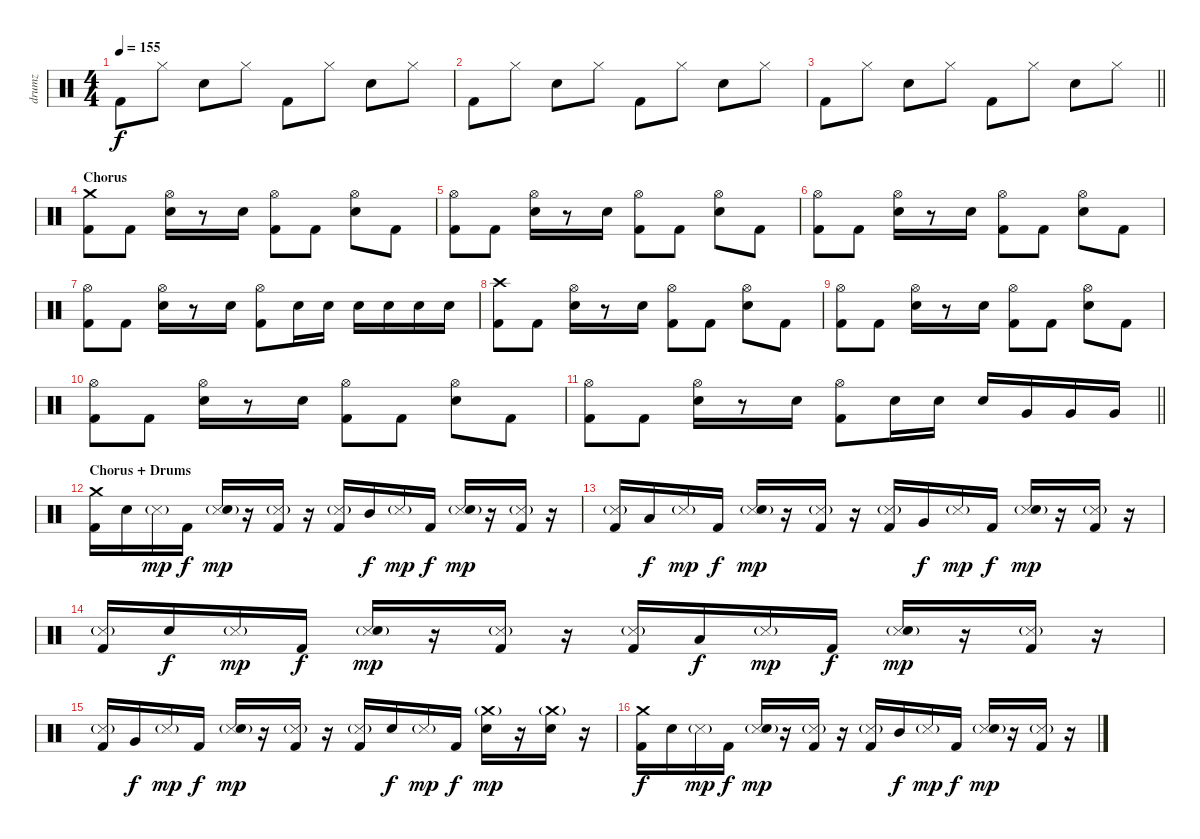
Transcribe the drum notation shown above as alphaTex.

\track ("drumz" "drumz") {instrument percussion}
\staff {score}
\articulation defaults
\ts (4 4)
\tempo 155
\clef neutral
\ks c "Kick (hit) 2".8{dy f} "Hi-Hat (closed)".8 "Electric Snare (hit)".8 "Hi-Hat (closed)".8 "Kick (hit) 2".8 "Hi-Hat (closed)".8 "Electric Snare (hit)".8 "Hi-Hat (closed)".8
|
"Kick (hit) 2".8 "Hi-Hat (closed)".8 "Electric Snare (hit)".8 "Hi-Hat (closed)".8 "Kick (hit) 2".8 "Hi-Hat (closed)".8 "Electric Snare (hit)".8 "Hi-Hat (closed)".8 |
\barLineRight lightlight "Kick (hit) 2".8 "Hi-Hat (closed)".8 "Electric Snare (hit)".8 "Hi-Hat (closed)".8 "Kick (hit) 2".8 "Hi-Hat (closed)".8 "Electric Snare (hit)".8 "Hi-Hat (closed)".8
|
\section ("" "Chorus")
("Crash medium (hit)" "Kick (hit) 2").8 "Kick (hit) 2".8 ("Hi-Hat (open)" "Electric Snare (hit)").16 r.8 "Electric Snare (hit)".16 ("Hi-Hat (open)" "Kick (hit) 2").8 "Kick (hit) 2".8 ("Hi-Hat (open)" "Electric Snare (hit)").8 "Kick (hit) 2".8 |
("Hi-Hat (open)" "Kick (hit) 2").8 "Kick (hit) 2".8 ("Hi-Hat (open)" "Electric Snare (hit)").16 r.8 "Electric Snare (hit)".16 ("Hi-Hat (open)" "Kick (hit) 2").8 "Kick (hit) 2".8 ("Hi-Hat (open)" "Electric Snare (hit)").8 "Kick (hit) 2".8 |
("Hi-Hat (open)" "Kick (hit) 2").8 "Kick (hit) 2".8 ("Hi-Hat (open)" "Electric Snare (hit)").16 r.8 "Electric Snare (hit)".16 ("Hi-Hat (open)" "Kick (hit) 2").8 "Kick (hit) 2".8 ("Hi-Hat (open)" "Electric Snare (hit)").8 "Kick (hit) 2".8 |
("Hi-Hat (open)" "Kick (hit) 2").8 "Kick (hit) 2".8 ("Hi-Hat (open)" "Electric Snare (hit)").16 r.8 "Electric Snare (hit)".16 ("Hi-Hat (open)" "Kick (hit) 2").8 "Electric Snare (hit)".16 "Electric Snare (hit)".16 "Electric Snare (hit)".16 "Electric Snare (hit)".16 "Electric Snare (hit)".16 "Electric Snare (hit)".16 |
("Crash high (hit)" "Kick (hit) 2").8 "Kick (hit) 2".8 ("Hi-Hat (open)" "Electric Snare (hit)").16 r.8 "Electric Snare (hit)".16 ("Hi-Hat (open)" "Kick (hit) 2").8 "Kick (hit) 2".8 ("Hi-Hat (open)" "Electric Snare (hit)").8 "Kick (hit) 2".8 |
("Hi-Hat (open)" "Kick (hit) 2").8 "Kick (hit) 2".8 ("Hi-Hat (open)" "Electric Snare (hit)").16 r.8 "Electric Snare (hit)".16 ("Hi-Hat (open)" "Kick (hit) 2").8 "Kick (hit) 2".8 ("Hi-Hat (open)" "Electric Snare (hit)").8 "Kick (hit) 2".8 |
("Hi-Hat (open)" "Kick (hit) 2").8 "Kick (hit) 2".8 ("Hi-Hat (open)" "Electric Snare (hit)").16 r.8 "Electric Snare (hit)".16 ("Hi-Hat (open)" "Kick (hit) 2").8 "Kick (hit) 2".8 ("Hi-Hat (open)" "Electric Snare (hit)").8 "Kick (hit) 2".8 |
\barLineRight lightlight
("Hi-Hat (open)" "Kick (hit) 2").8 "Kick (hit) 2".8 ("Hi-Hat (open)" "Electric Snare (hit)").16 r.8 "Electric Snare (hit)".16 ("Hi-Hat (open)" "Kick (hit) 2").8 "Electric Snare (hit)".16 "Electric Snare (hit)".16 "Electric Snare (hit)".16 "Very Low Tom (hit)".16 "Very Low Tom (hit)".16 "Very Low Tom (hit)".16 |
\section ("" "Chorus + Drums")
("Crash medium (hit)" "Kick (hit) 2").16 "Electric Snare (hit)".16 "Metronome (hit)"{g}.16{dy mp} "Kick (hit) 2".16{dy f} ("Metronome (hit)"{g} "Electric Snare (hit)").16{dy mp} r.16 ("Metronome (hit)"{g} "Kick (hit) 2").16 r.16 ("Metronome (hit)"{g} "Kick (hit) 2").16 "Mid Tom (hit)".16{dy f} "Metronome (hit)"{g}.16{dy mp} "Kick (hit) 2".16{dy f} ("Metronome (hit)"{g} "Electric Snare (hit)").16{dy mp} r.16 ("Metronome (hit)"{g} "Kick (hit) 2").16 r.16 |
("Metronome (hit)"{g} "Kick (hit) 2").16 "Low Tom (hit)".16{dy f} "Metronome (hit)"{g}.16{dy mp} "Kick (hit) 2".16{dy f} ("Metronome (hit)"{g} "Electric Snare (hit)").16{dy mp} r.16 ("Metronome (hit)"{g} "Kick (hit) 2").16 r.16 ("Metronome (hit)"{g} "Kick (hit) 2").16 "Very Low Tom (hit)".16{dy f} "Metronome (hit)"{g}.16{dy mp} "Kick (hit) 2".16{dy f} ("Metronome (hit)"{g} "Electric Snare (hit)").16{dy mp} r.16 ("Metronome (hit)"{g} "Kick (hit) 2").16 r.16 |
("Metronome (hit)"{g} "Kick (hit) 2").16 "Electric Snare (hit)".16{dy f} "Metronome (hit)"{g}.16{dy mp} "Kick (hit) 2".16{dy f} ("Metronome (hit)"{g} "Electric Snare (hit)").16{dy mp} r.16 ("Metronome (hit)"{g} "Kick (hit) 2").16 r.16 ("Metronome (hit)"{g} "Kick (hit) 2").16 "Low Tom (hit)".16{dy f} "Metronome (hit)"{g}.16{dy mp} "Kick (hit) 2".16{dy f} ("Metronome (hit)"{g} "Electric Snare (hit)").16{dy mp} r.16 ("Metronome (hit)"{g} "Kick (hit) 2").16 r.16 |
("Metronome (hit)"{g} "Kick (hit) 2").16 "Very Low Tom (hit)".16{dy f} "Metronome (hit)"{g}.16{dy mp} "Kick (hit) 2".16{dy f} ("Metronome (hit)"{g} "Electric Snare (hit)").16{dy mp} r.16 ("Metronome (hit)"{g} "Kick (hit) 2").16 r.16 ("Metronome (hit)"{g} "Kick (hit) 2").16 "Electric Snare (hit)".16{dy f} "Metronome (hit)"{g}.16{dy mp} "Kick (hit) 2".16{dy f} ("Crash medium (hit)"{g} "Electric Snare (hit)").16{dy mp} r.16 ("Crash medium (hit)"{g} "Electric Snare (hit)").16 r.16 |
("Crash medium (hit)" "Kick (hit) 2").16{dy f} "Electric Snare (hit)".16 "Metronome (hit)"{g}.16{dy mp} "Kick (hit) 2".16{dy f} ("Metronome (hit)"{g} "Electric Snare (hit)").16{dy mp} r.16 ("Metronome (hit)"{g} "Kick (hit) 2").16 r.16 ("Metronome (hit)"{g} "Kick (hit) 2").16 "Mid Tom (hit)".16{dy f} "Metronome (hit)"{g}.16{dy mp} "Kick (hit) 2".16{dy f} ("Metronome (hit)"{g} "Electric Snare (hit)").16{dy mp} r.16 ("Metronome (hit)"{g} "Kick (hit) 2").16 r.16
